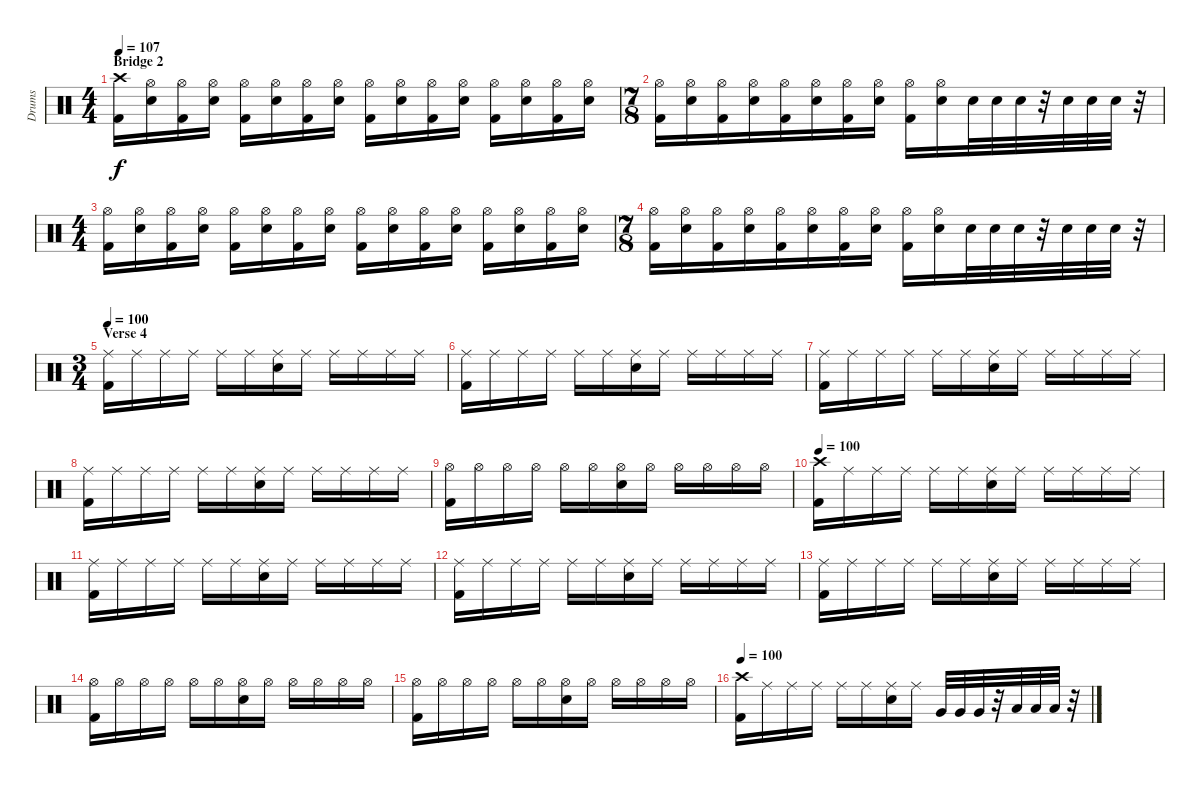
\track ("Drums" "Drums") {instrument percussion}
\staff {score}
\articulation defaults
\ts (4 4)
\section ("" "Bridge 2")
\tempo 107
\clef neutral
\ks c
("Crash high (hit)" "Kick (hit) 2").16{dy f} ("Hi-Hat (open)" "Electric Snare (hit)").16 ("Hi-Hat (open)" "Kick (hit) 2").16 ("Hi-Hat (open)" "Electric Snare (hit)").16 ("Hi-Hat (open)" "Kick (hit) 2").16 ("Hi-Hat (open)" "Electric Snare (hit)").16 ("Hi-Hat (open)" "Kick (hit) 2").16 ("Hi-Hat (open)" "Electric Snare (hit)").16 ("Hi-Hat (open)" "Kick (hit) 2").16 ("Hi-Hat (open)" "Electric Snare (hit)").16 ("Hi-Hat (open)" "Kick (hit) 2").16 ("Hi-Hat (open)" "Electric Snare (hit)").16 ("Hi-Hat (open)" "Kick (hit) 2").16 ("Hi-Hat (open)" "Electric Snare (hit)").16 ("Hi-Hat (open)" "Kick (hit) 2").16 ("Hi-Hat (open)" "Electric Snare (hit)").16 |
\ts (7 8)
("Hi-Hat (open)" "Kick (hit) 2").16 ("Hi-Hat (open)" "Electric Snare (hit)").16 ("Hi-Hat (open)" "Kick (hit) 2").16 ("Hi-Hat (open)" "Electric Snare (hit)").16 ("Hi-Hat (open)" "Kick (hit) 2").16 ("Hi-Hat (open)" "Electric Snare (hit)").16 ("Hi-Hat (open)" "Kick (hit) 2").16 ("Hi-Hat (open)" "Electric Snare (hit)").16 ("Hi-Hat (open)" "Kick (hit) 2").16 ("Hi-Hat (open)" "Electric Snare (hit)").16 "Electric Snare (hit)".32 "Electric Snare (hit)".32 "Electric Snare (hit)".32 r.32 "Electric Snare (hit)".32 "Electric Snare (hit)".32 "Electric Snare (hit)".32 r.32 |
\ts (4 4)
("Hi-Hat (open)" "Kick (hit) 2").16 ("Hi-Hat (open)" "Electric Snare (hit)").16 ("Hi-Hat (open)" "Kick (hit) 2").16 ("Hi-Hat (open)" "Electric Snare (hit)").16 ("Hi-Hat (open)" "Kick (hit) 2").16 ("Hi-Hat (open)" "Electric Snare (hit)").16 ("Hi-Hat (open)" "Kick (hit) 2").16 ("Hi-Hat (open)" "Electric Snare (hit)").16 ("Hi-Hat (open)" "Kick (hit) 2").16 ("Hi-Hat (open)" "Electric Snare (hit)").16 ("Hi-Hat (open)" "Kick (hit) 2").16 ("Hi-Hat (open)" "Electric Snare (hit)").16 ("Hi-Hat (open)" "Kick (hit) 2").16 ("Hi-Hat (open)" "Electric Snare (hit)").16 ("Hi-Hat (open)" "Kick (hit) 2").16 ("Hi-Hat (open)" "Electric Snare (hit)").16 |
\ts (7 8)
("Hi-Hat (open)" "Kick (hit) 2").16 ("Hi-Hat (open)" "Electric Snare (hit)").16 ("Hi-Hat (open)" "Kick (hit) 2").16 ("Hi-Hat (open)" "Electric Snare (hit)").16 ("Hi-Hat (open)" "Kick (hit) 2").16 ("Hi-Hat (open)" "Electric Snare (hit)").16 ("Hi-Hat (open)" "Kick (hit) 2").16 ("Hi-Hat (open)" "Electric Snare (hit)").16 ("Hi-Hat (open)" "Kick (hit) 2").16 ("Hi-Hat (open)" "Electric Snare (hit)").16 "Electric Snare (hit)".32 "Electric Snare (hit)".32 "Electric Snare (hit)".32 r.32 "Electric Snare (hit)".32 "Electric Snare (hit)".32 "Electric Snare (hit)".32 r.32 |
\ts (3 4)
\section ("" "Verse 4")
\tempo 100
("Ride (middle)" "Kick (hit) 2").16 "Ride (middle)".16 "Ride (middle)".16 "Ride (middle)".16 "Ride (middle)".16 "Ride (middle)".16 ("Ride (middle)" "Electric Snare (hit)").16 "Ride (middle)".16 "Ride (middle)".16 "Ride (middle)".16 "Ride (middle)".16 "Ride (middle)".16 |
("Ride (middle)" "Kick (hit) 2").16 "Ride (middle)".16 "Ride (middle)".16 "Ride (middle)".16 "Ride (middle)".16 "Ride (middle)".16 ("Ride (middle)" "Electric Snare (hit)").16 "Ride (middle)".16 "Ride (middle)".16 "Ride (middle)".16 "Ride (middle)".16 "Ride (middle)".16 |
("Ride (middle)" "Kick (hit) 2").16 "Ride (middle)".16 "Ride (middle)".16 "Ride (middle)".16 "Ride (middle)".16 "Ride (middle)".16 ("Ride (middle)" "Electric Snare (hit)").16 "Ride (middle)".16 "Ride (middle)".16 "Ride (middle)".16 "Ride (middle)".16 "Ride (middle)".16 |
("Ride (middle)" "Kick (hit) 2").16 "Ride (middle)".16 "Ride (middle)".16 "Ride (middle)".16 "Ride (middle)".16 "Ride (middle)".16 ("Ride (middle)" "Electric Snare (hit)").16 "Ride (middle)".16 "Ride (middle)".16 "Ride (middle)".16 "Ride (middle)".16 "Ride (middle)".16 |
("Hi-Hat (open)" "Kick (hit) 2").16 "Hi-Hat (open)".16 "Hi-Hat (open)".16 "Hi-Hat (open)".16 "Hi-Hat (open)".16 "Hi-Hat (open)".16 ("Hi-Hat (open)" "Electric Snare (hit)").16 "Hi-Hat (open)".16 "Hi-Hat (open)".16 "Hi-Hat (open)".16 "Hi-Hat (open)".16 "Hi-Hat (open)".16 |
\tempo 100
("Crash high (hit)" "Kick (hit) 2").16 "Ride (middle)".16 "Ride (middle)".16 "Ride (middle)".16 "Ride (middle)".16 "Ride (middle)".16 ("Ride (middle)" "Electric Snare (hit)").16 "Ride (middle)".16 "Ride (middle)".16 "Ride (middle)".16 "Ride (middle)".16 "Ride (middle)".16 |
("Ride (middle)" "Kick (hit) 2").16 "Ride (middle)".16 "Ride (middle)".16 "Ride (middle)".16 "Ride (middle)".16 "Ride (middle)".16 ("Ride (middle)" "Electric Snare (hit)").16 "Ride (middle)".16 "Ride (middle)".16 "Ride (middle)".16 "Ride (middle)".16 "Ride (middle)".16 |
("Ride (middle)" "Kick (hit) 2").16 "Ride (middle)".16 "Ride (middle)".16 "Ride (middle)".16 "Ride (middle)".16 "Ride (middle)".16 ("Ride (middle)" "Electric Snare (hit)").16 "Ride (middle)".16 "Ride (middle)".16 "Ride (middle)".16 "Ride (middle)".16 "Ride (middle)".16 |
("Ride (middle)" "Kick (hit) 2").16 "Ride (middle)".16 "Ride (middle)".16 "Ride (middle)".16 "Ride (middle)".16 "Ride (middle)".16 ("Ride (middle)" "Electric Snare (hit)").16 "Ride (middle)".16 "Ride (middle)".16 "Ride (middle)".16 "Ride (middle)".16 "Ride (middle)".16 |
("Hi-Hat (open)" "Kick (hit) 2").16 "Hi-Hat (open)".16 "Hi-Hat (open)".16 "Hi-Hat (open)".16 "Hi-Hat (open)".16 "Hi-Hat (open)".16 ("Hi-Hat (open)" "Electric Snare (hit)").16 "Hi-Hat (open)".16 "Hi-Hat (open)".16 "Hi-Hat (open)".16 "Hi-Hat (open)".16 "Hi-Hat (open)".16 |
("Hi-Hat (open)" "Kick (hit) 2").16 "Hi-Hat (open)".16 "Hi-Hat (open)".16 "Hi-Hat (open)".16 "Hi-Hat (open)".16 "Hi-Hat (open)".16 ("Hi-Hat (open)" "Electric Snare (hit)").16 "Hi-Hat (open)".16 "Hi-Hat (open)".16 "Hi-Hat (open)".16 "Hi-Hat (open)".16 "Hi-Hat (open)".16 |
\tempo 100
("Crash high (hit)" "Kick (hit) 2").16 "Ride (middle)".16 "Ride (middle)".16 "Ride (middle)".16 "Ride (middle)".16 "Ride (middle)".16 ("Ride (middle)" "Electric Snare (hit)").16 "Ride (middle)".16 "Very Low Tom (hit)".32 "Very Low Tom (hit)".32 "Very Low Tom (hit)".32 r.32 "Low Floor Tom (hit)".32 "Low Floor Tom (hit)".32 "Low Floor Tom (hit)".32 r.32
